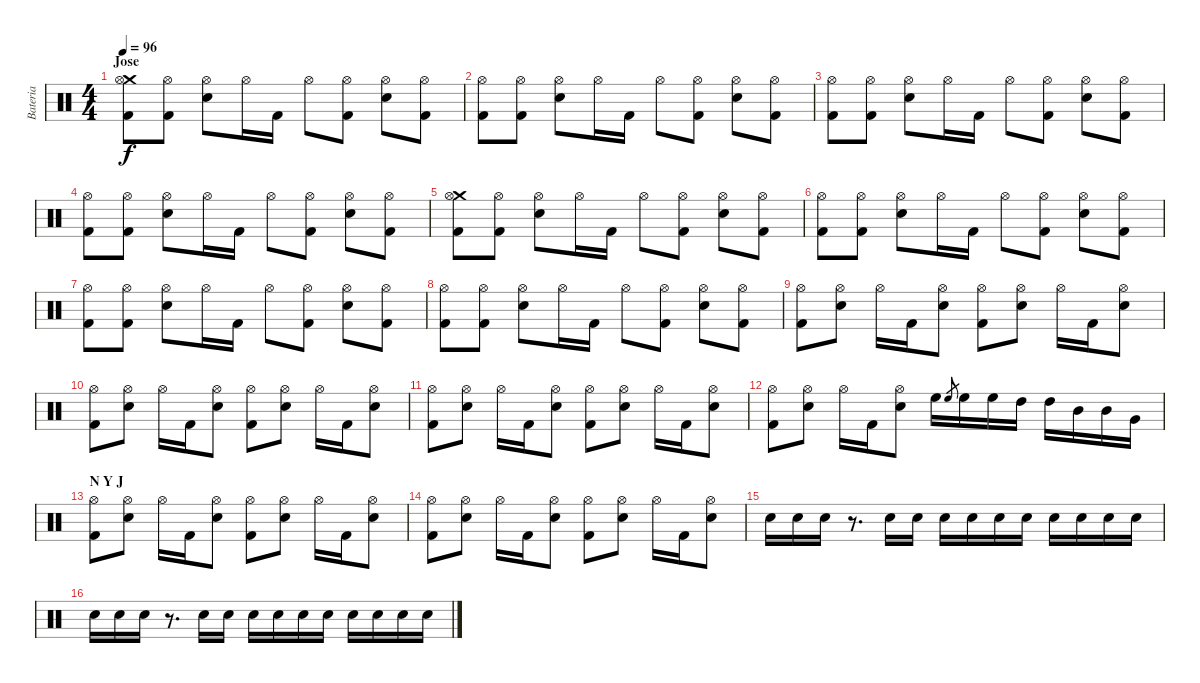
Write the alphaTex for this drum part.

\track ("Bateria" "Bateria") {instrument percussion}
\staff {score}
\articulation defaults
\ts (4 4)
\section ("" "Jose")
\tempo 96
\clef neutral
\ks c
("Crash medium (hit)" "Kick (hit) 2" "Hi-Hat (open)").8{dy f} ("Kick (hit) 2" "Hi-Hat (open)").8 ("Hi-Hat (open)" "Snare (hit) 2").8 "Hi-Hat (open)".16 "Kick (hit) 2".16 "Hi-Hat (open)".8 ("Kick (hit) 2" "Hi-Hat (open)").8 ("Hi-Hat (open)" "Snare (hit) 2").8 ("Hi-Hat (open)" "Kick (hit) 2").8 |
("Kick (hit) 2" "Hi-Hat (open)").8 ("Kick (hit) 2" "Hi-Hat (open)").8 ("Hi-Hat (open)" "Snare (hit) 2").8 "Hi-Hat (open)".16 "Kick (hit) 2".16 "Hi-Hat (open)".8 ("Kick (hit) 2" "Hi-Hat (open)").8 ("Hi-Hat (open)" "Snare (hit) 2").8 ("Hi-Hat (open)" "Kick (hit) 2").8 |
("Kick (hit) 2" "Hi-Hat (open)").8 ("Kick (hit) 2" "Hi-Hat (open)").8 ("Hi-Hat (open)" "Snare (hit) 2").8 "Hi-Hat (open)".16 "Kick (hit) 2".16 "Hi-Hat (open)".8 ("Kick (hit) 2" "Hi-Hat (open)").8 ("Hi-Hat (open)" "Snare (hit) 2").8 ("Hi-Hat (open)" "Kick (hit) 2").8 |
("Kick (hit) 2" "Hi-Hat (open)").8 ("Kick (hit) 2" "Hi-Hat (open)").8 ("Hi-Hat (open)" "Snare (hit) 2").8 "Hi-Hat (open)".16 "Kick (hit) 2".16 "Hi-Hat (open)".8 ("Kick (hit) 2" "Hi-Hat (open)").8 ("Hi-Hat (open)" "Snare (hit) 2").8 ("Hi-Hat (open)" "Kick (hit) 2").8 |
("Crash medium (hit)" "Kick (hit) 2" "Hi-Hat (open)").8 ("Kick (hit) 2" "Hi-Hat (open)").8 ("Hi-Hat (open)" "Snare (hit) 2").8 "Hi-Hat (open)".16 "Kick (hit) 2".16 "Hi-Hat (open)".8 ("Kick (hit) 2" "Hi-Hat (open)").8 ("Hi-Hat (open)" "Snare (hit) 2").8 ("Hi-Hat (open)" "Kick (hit) 2").8 |
("Kick (hit) 2" "Hi-Hat (open)").8 ("Kick (hit) 2" "Hi-Hat (open)").8 ("Hi-Hat (open)" "Snare (hit) 2").8 "Hi-Hat (open)".16 "Kick (hit) 2".16 "Hi-Hat (open)".8 ("Kick (hit) 2" "Hi-Hat (open)").8 ("Hi-Hat (open)" "Snare (hit) 2").8 ("Hi-Hat (open)" "Kick (hit) 2").8 |
("Kick (hit) 2" "Hi-Hat (open)").8 ("Kick (hit) 2" "Hi-Hat (open)").8 ("Hi-Hat (open)" "Snare (hit) 2").8 "Hi-Hat (open)".16 "Kick (hit) 2".16 "Hi-Hat (open)".8 ("Kick (hit) 2" "Hi-Hat (open)").8 ("Hi-Hat (open)" "Snare (hit) 2").8 ("Hi-Hat (open)" "Kick (hit) 2").8 |
("Kick (hit) 2" "Hi-Hat (open)").8 ("Kick (hit) 2" "Hi-Hat (open)").8 ("Hi-Hat (open)" "Snare (hit) 2").8 "Hi-Hat (open)".16 "Kick (hit) 2".16 "Hi-Hat (open)".8 ("Kick (hit) 2" "Hi-Hat (open)").8 ("Hi-Hat (open)" "Snare (hit) 2").8 ("Hi-Hat (open)" "Kick (hit) 2").8 |
("Kick (hit) 2" "Hi-Hat (open)").8 ("Hi-Hat (open)" "Snare (hit) 2").8 "Hi-Hat (open)".16 "Kick (hit) 2".16 ("Hi-Hat (open)" "Snare (hit) 2").8 ("Kick (hit) 2" "Hi-Hat (open)").8 ("Hi-Hat (open)" "Snare (hit) 2").8 "Hi-Hat (open)".16 "Kick (hit) 2".16 ("Hi-Hat (open)" "Snare (hit) 2").8 |
("Kick (hit) 2" "Hi-Hat (open)").8 ("Hi-Hat (open)" "Snare (hit) 2").8 "Hi-Hat (open)".16 "Kick (hit) 2".16 ("Hi-Hat (open)" "Snare (hit) 2").8 ("Kick (hit) 2" "Hi-Hat (open)").8 ("Hi-Hat (open)" "Snare (hit) 2").8 "Hi-Hat (open)".16 "Kick (hit) 2".16 ("Hi-Hat (open)" "Snare (hit) 2").8 |
("Kick (hit) 2" "Hi-Hat (open)").8 ("Hi-Hat (open)" "Snare (hit) 2").8 "Hi-Hat (open)".16 "Kick (hit) 2".16 ("Hi-Hat (open)" "Snare (hit) 2").8 ("Kick (hit) 2" "Hi-Hat (open)").8 ("Hi-Hat (open)" "Snare (hit) 2").8 "Hi-Hat (open)".16 "Kick (hit) 2".16 ("Hi-Hat (open)" "Snare (hit) 2").8 |
("Kick (hit) 2" "Hi-Hat (open)").8 ("Hi-Hat (open)" "Snare (hit) 2").8 "Hi-Hat (open)".16 "Kick (hit) 2".16 ("Hi-Hat (open)" "Snare (hit) 2").8 "High Floor Tom (hit)".16 "High Floor Tom (hit)".8{gr} "High Floor Tom (hit)".16 "High Floor Tom (hit)".16 "High Tom (hit)".16 "High Tom (hit)".16 "Mid Tom (hit)".16 "Mid Tom (hit)".16 "Very Low Tom (hit)".16 |
\section ("" "N Y J")
("Kick (hit) 2" "Hi-Hat (open)").8 ("Hi-Hat (open)" "Snare (hit) 2").8 "Hi-Hat (open)".16 "Kick (hit) 2".16 ("Hi-Hat (open)" "Snare (hit) 2").8 ("Kick (hit) 2" "Hi-Hat (open)").8 ("Hi-Hat (open)" "Snare (hit) 2").8 "Hi-Hat (open)".16 "Kick (hit) 2".16 ("Hi-Hat (open)" "Snare (hit) 2").8 |
("Kick (hit) 2" "Hi-Hat (open)").8 ("Hi-Hat (open)" "Snare (hit) 2").8 "Hi-Hat (open)".16 "Kick (hit) 2".16 ("Hi-Hat (open)" "Snare (hit) 2").8 ("Kick (hit) 2" "Hi-Hat (open)").8 ("Hi-Hat (open)" "Snare (hit) 2").8 "Hi-Hat (open)".16 "Kick (hit) 2".16 ("Hi-Hat (open)" "Snare (hit) 2").8 |
"Snare (hit) 2".16 "Snare (hit) 2".16 "Snare (hit) 2".16 r.8{d} "Snare (hit) 2".16 "Snare (hit) 2".16 "Snare (hit) 2".16 "Snare (hit) 2".16 "Snare (hit) 2".16 "Snare (hit) 2".16 "Snare (hit) 2".16 "Snare (hit) 2".16 "Snare (hit) 2".16 "Snare (hit) 2".16 |
"Snare (hit) 2".16 "Snare (hit) 2".16 "Snare (hit) 2".16 r.8{d} "Snare (hit) 2".16 "Snare (hit) 2".16 "Snare (hit) 2".16 "Snare (hit) 2".16 "Snare (hit) 2".16 "Snare (hit) 2".16 "Snare (hit) 2".16 "Snare (hit) 2".16 "Snare (hit) 2".16 "Snare (hit) 2".16
